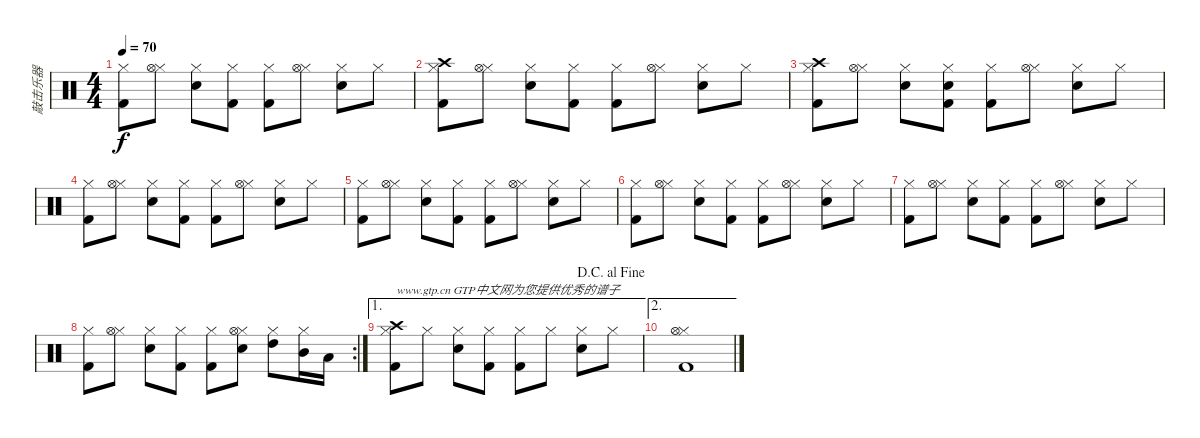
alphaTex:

\track ("敲击乐器" "敲击乐器") {instrument percussion}
\staff {score}
\articulation defaults
\ts (4 4)
\tempo 70
\clef neutral
\ks c
("Kick (hit) 2" "Hi-Hat (closed)").8{dy f} ("Hi-Hat (closed)" "Hi-Hat (open)").8 ("Electric Snare (hit)" "Hi-Hat (closed)").8 ("Kick (hit) 2" "Hi-Hat (closed)").8 ("Kick (hit) 2" "Hi-Hat (closed)").8 ("Hi-Hat (closed)" "Hi-Hat (open)").8 ("Electric Snare (hit)" "Hi-Hat (closed)").8 "Hi-Hat (closed)".8 |
("Kick (hit) 2" "Hi-Hat (closed)" "Crash high (hit)").8 ("Hi-Hat (closed)" "Hi-Hat (open)").8 ("Electric Snare (hit)" "Hi-Hat (closed)").8 ("Kick (hit) 2" "Hi-Hat (closed)").8 ("Kick (hit) 2" "Hi-Hat (closed)").8 ("Hi-Hat (closed)" "Hi-Hat (open)").8 ("Electric Snare (hit)" "Hi-Hat (closed)").8 "Hi-Hat (closed)".8 |
("Kick (hit) 2" "Hi-Hat (closed)" "Crash high (hit)").8 ("Hi-Hat (closed)" "Hi-Hat (open)").8 ("Electric Snare (hit)" "Hi-Hat (closed)").8 ("Kick (hit) 2" "Hi-Hat (closed)" "Electric Snare (hit)").8 ("Kick (hit) 2" "Hi-Hat (closed)").8 ("Hi-Hat (closed)" "Hi-Hat (open)").8 ("Electric Snare (hit)" "Hi-Hat (closed)").8 "Hi-Hat (closed)".8 |
("Kick (hit) 2" "Hi-Hat (closed)").8 ("Hi-Hat (closed)" "Hi-Hat (open)").8 ("Electric Snare (hit)" "Hi-Hat (closed)").8 ("Kick (hit) 2" "Hi-Hat (closed)").8 ("Kick (hit) 2" "Hi-Hat (closed)").8 ("Hi-Hat (closed)" "Hi-Hat (open)").8 ("Electric Snare (hit)" "Hi-Hat (closed)").8 "Hi-Hat (closed)".8 |
("Kick (hit) 2" "Hi-Hat (closed)").8 ("Hi-Hat (closed)" "Hi-Hat (open)").8 ("Electric Snare (hit)" "Hi-Hat (closed)").8 ("Kick (hit) 2" "Hi-Hat (closed)").8 ("Kick (hit) 2" "Hi-Hat (closed)").8 ("Hi-Hat (closed)" "Hi-Hat (open)").8 ("Electric Snare (hit)" "Hi-Hat (closed)").8 "Hi-Hat (closed)".8 |
("Kick (hit) 2" "Hi-Hat (closed)").8 ("Hi-Hat (closed)" "Hi-Hat (open)").8 ("Electric Snare (hit)" "Hi-Hat (closed)").8 ("Kick (hit) 2" "Hi-Hat (closed)").8 ("Kick (hit) 2" "Hi-Hat (closed)").8 ("Hi-Hat (closed)" "Hi-Hat (open)").8 ("Electric Snare (hit)" "Hi-Hat (closed)").8 "Hi-Hat (closed)".8 |
("Kick (hit) 2" "Hi-Hat (closed)").8 ("Hi-Hat (closed)" "Hi-Hat (open)").8 ("Electric Snare (hit)" "Hi-Hat (closed)").8 ("Kick (hit) 2" "Hi-Hat (closed)").8 ("Kick (hit) 2" "Hi-Hat (closed)").8 ("Hi-Hat (closed)" "Hi-Hat (open)").8 ("Electric Snare (hit)" "Hi-Hat (closed)").8 "Hi-Hat (closed)".8 |
\rc 2
("Kick (hit) 2" "Hi-Hat (closed)").8 ("Hi-Hat (closed)" "Hi-Hat (open)").8 ("Electric Snare (hit)" "Hi-Hat (closed)").8 ("Kick (hit) 2" "Hi-Hat (closed)").8 ("Kick (hit) 2" "Hi-Hat (closed)").8 ("Hi-Hat (closed)" "Hi-Hat (open)" "Electric Snare (hit)").8 ("High Tom (hit)" "Hi-Hat (closed)").8 ("Hi-Hat (closed)" "Mid Tom (hit)").16 "Low Tom (hit)".16 |
\ae 1
\jump dacapoalfine
("Kick (hit) 2" "Hi-Hat (closed)" "Crash high (hit)").8{txt "www.gtp.cn GTP中文网为您提供优秀的谱子"} "Hi-Hat (closed)".8 ("Electric Snare (hit)" "Hi-Hat (closed)").8 ("Kick (hit) 2" "Hi-Hat (closed)").8 ("Kick (hit) 2" "Hi-Hat (closed)").8 "Hi-Hat (closed)".8 ("Electric Snare (hit)" "Hi-Hat (closed)").8 "Hi-Hat (closed)".8 |
\ae 2
("Hi-Hat (closed)" "Kick (hit) 2" "Hi-Hat (open)").1
